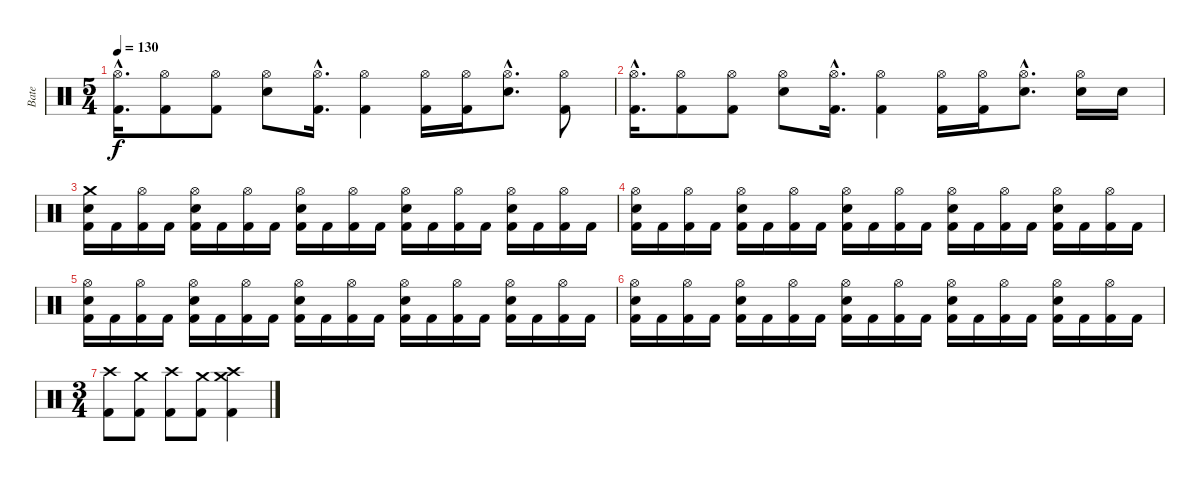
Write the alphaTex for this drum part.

\track ("Bate" "Bate") {instrument percussion}
\staff {score}
\articulation defaults
\ts (5 4)
\tempo 130
\clef neutral
\ks c
("Hi-Hat (open)"{hac} "Kick (hit) 2"{hac}).16{d dy f} ("Hi-Hat (open)" "Kick (hit) 2").8 ("Hi-Hat (open)" "Kick (hit) 2").8 ("Hi-Hat (open)" "Snare (hit) 2").8 ("Hi-Hat (open)"{hac} "Kick (hit) 2"{hac}).16{d} ("Hi-Hat (open)" "Kick (hit) 2").4 ("Hi-Hat (open)" "Kick (hit) 2").16 ("Hi-Hat (open)" "Kick (hit) 2").16 ("Hi-Hat (open)"{hac} "Snare (hit) 2"{hac}).8{d} ("Hi-Hat (open)" "Kick (hit) 2").8 |
("Hi-Hat (open)"{hac} "Kick (hit) 2"{hac}).16{d} ("Hi-Hat (open)" "Kick (hit) 2").8 ("Hi-Hat (open)" "Kick (hit) 2").8 ("Hi-Hat (open)" "Snare (hit) 2").8 ("Hi-Hat (open)"{hac} "Kick (hit) 2"{hac}).16{d} ("Hi-Hat (open)" "Kick (hit) 2").4 ("Hi-Hat (open)" "Kick (hit) 2").16 ("Hi-Hat (open)" "Kick (hit) 2").16 ("Hi-Hat (open)"{hac} "Snare (hit) 2"{hac}).8{d} ("Hi-Hat (open)" "Snare (hit) 2").16 "Snare (hit) 2".16 |
("Crash medium (hit)" "Snare (hit) 2" "Kick (hit) 2").16 "Kick (hit) 2".16 ("Hi-Hat (open)" "Kick (hit) 2").16 "Kick (hit) 2".16 ("Hi-Hat (open)" "Snare (hit) 2" "Kick (hit) 2").16 "Kick (hit) 2".16 ("Hi-Hat (open)" "Kick (hit) 2").16 "Kick (hit) 2".16 ("Hi-Hat (open)" "Snare (hit) 2" "Kick (hit) 2").16 "Kick (hit) 2".16 ("Hi-Hat (open)" "Kick (hit) 2").16 "Kick (hit) 2".16 ("Hi-Hat (open)" "Snare (hit) 2" "Kick (hit) 2").16 "Kick (hit) 2".16 ("Hi-Hat (open)" "Kick (hit) 2").16 "Kick (hit) 2".16 ("Hi-Hat (open)" "Snare (hit) 2" "Kick (hit) 2").16 "Kick (hit) 2".16 ("Hi-Hat (open)" "Kick (hit) 2").16 "Kick (hit) 2".16 |
("Hi-Hat (open)" "Snare (hit) 2" "Kick (hit) 2").16 "Kick (hit) 2".16 ("Hi-Hat (open)" "Kick (hit) 2").16 "Kick (hit) 2".16 ("Hi-Hat (open)" "Snare (hit) 2" "Kick (hit) 2").16 "Kick (hit) 2".16 ("Hi-Hat (open)" "Kick (hit) 2").16 "Kick (hit) 2".16 ("Hi-Hat (open)" "Snare (hit) 2" "Kick (hit) 2").16 "Kick (hit) 2".16 ("Hi-Hat (open)" "Kick (hit) 2").16 "Kick (hit) 2".16 ("Hi-Hat (open)" "Snare (hit) 2" "Kick (hit) 2").16 "Kick (hit) 2".16 ("Hi-Hat (open)" "Kick (hit) 2").16 "Kick (hit) 2".16 ("Hi-Hat (open)" "Snare (hit) 2" "Kick (hit) 2").16 "Kick (hit) 2".16 ("Hi-Hat (open)" "Kick (hit) 2").16 "Kick (hit) 2".16 |
("Hi-Hat (open)" "Snare (hit) 2" "Kick (hit) 2").16 "Kick (hit) 2".16 ("Hi-Hat (open)" "Kick (hit) 2").16 "Kick (hit) 2".16 ("Hi-Hat (open)" "Snare (hit) 2" "Kick (hit) 2").16 "Kick (hit) 2".16 ("Hi-Hat (open)" "Kick (hit) 2").16 "Kick (hit) 2".16 ("Hi-Hat (open)" "Snare (hit) 2" "Kick (hit) 2").16 "Kick (hit) 2".16 ("Hi-Hat (open)" "Kick (hit) 2").16 "Kick (hit) 2".16 ("Hi-Hat (open)" "Snare (hit) 2" "Kick (hit) 2").16 "Kick (hit) 2".16 ("Hi-Hat (open)" "Kick (hit) 2").16 "Kick (hit) 2".16 ("Hi-Hat (open)" "Snare (hit) 2" "Kick (hit) 2").16 "Kick (hit) 2".16 ("Hi-Hat (open)" "Kick (hit) 2").16 "Kick (hit) 2".16 |
("Hi-Hat (open)" "Snare (hit) 2" "Kick (hit) 2").16 "Kick (hit) 2".16 ("Hi-Hat (open)" "Kick (hit) 2").16 "Kick (hit) 2".16 ("Hi-Hat (open)" "Snare (hit) 2" "Kick (hit) 2").16 "Kick (hit) 2".16 ("Hi-Hat (open)" "Kick (hit) 2").16 "Kick (hit) 2".16 ("Hi-Hat (open)" "Snare (hit) 2" "Kick (hit) 2").16 "Kick (hit) 2".16 ("Hi-Hat (open)" "Kick (hit) 2").16 "Kick (hit) 2".16 ("Hi-Hat (open)" "Snare (hit) 2" "Kick (hit) 2").16 "Kick (hit) 2".16 ("Hi-Hat (open)" "Kick (hit) 2").16 "Kick (hit) 2".16 ("Hi-Hat (open)" "Snare (hit) 2" "Kick (hit) 2").16 "Kick (hit) 2".16 ("Hi-Hat (open)" "Kick (hit) 2").16 "Kick (hit) 2".16 |
\ts (3 4)
("Crash high (hit)" "Kick (hit) 2").8 ("Crash medium (hit)" "Kick (hit) 2").8 ("Crash high (hit)" "Kick (hit) 2").8 ("Crash medium (hit)" "Kick (hit) 2").8 ("Crash medium (hit)" "Crash high (hit)" "Kick (hit) 2").4
